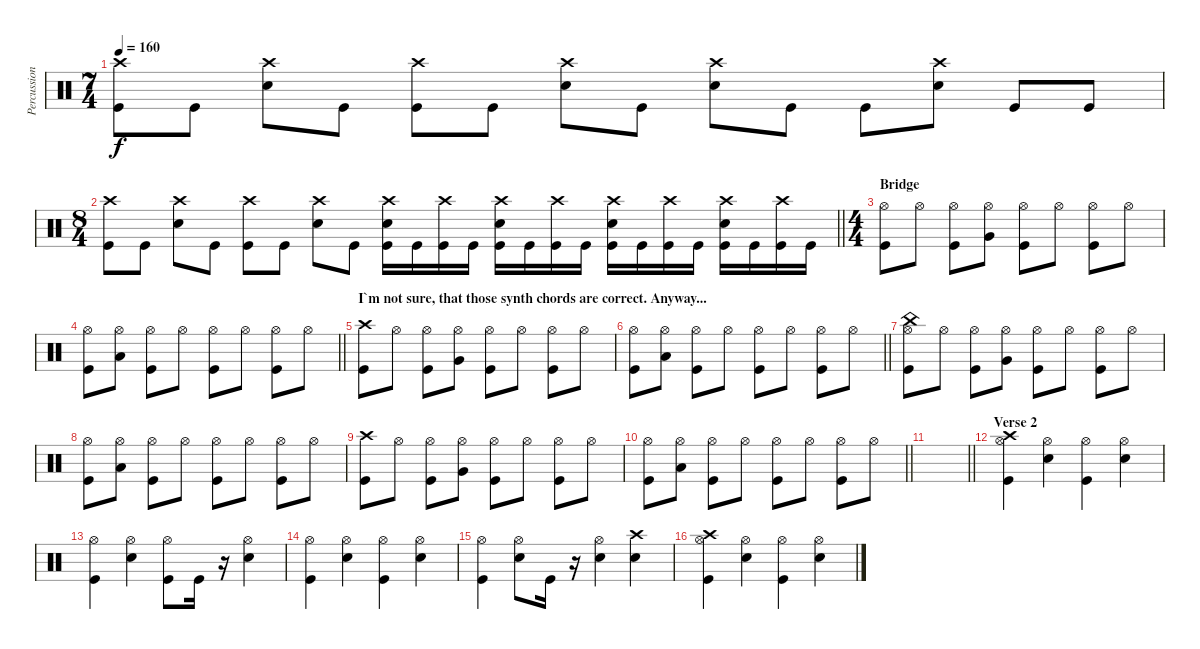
\track ("Percussion" "Percussion") {instrument percussion}
\staff {score}
\articulation defaults
\ts (7 4)
\tempo 160
\clef neutral
\ks c
("Kick (hit)" "Crash high (hit)").8{dy f} "Kick (hit)".8 ("Snare (hit) 2" "Crash high (hit)").8 "Kick (hit)".8 ("Kick (hit)" "Crash high (hit)").8 "Kick (hit)".8 ("Snare (hit) 2" "Crash high (hit)").8 "Kick (hit)".8 ("Snare (hit) 2" "Crash high (hit)").8 "Kick (hit)".8 "Kick (hit)".8 ("Snare (hit) 2" "Crash high (hit)").8 "Kick (hit)".8 "Kick (hit)".8 |
\ts (8 4)
\barLineRight lightlight
("Kick (hit)" "Crash high (hit)").8 "Kick (hit)".8 ("Snare (hit) 2" "Crash high (hit)").8 "Kick (hit)".8 ("Kick (hit)" "Crash high (hit)").8 "Kick (hit)".8 ("Snare (hit) 2" "Crash high (hit)").8 "Kick (hit)".8 ("Kick (hit)" "Snare (hit) 2" "Crash high (hit)").16 "Kick (hit)".16 ("Kick (hit)" "Crash high (hit)").16 "Kick (hit)".16 ("Kick (hit)" "Snare (hit) 2" "Crash high (hit)").16 "Kick (hit)".16 ("Kick (hit)" "Crash high (hit)").16 "Kick (hit)".16 ("Kick (hit)" "Snare (hit) 2" "Crash high (hit)").16 "Kick (hit)".16 ("Kick (hit)" "Crash high (hit)").16 "Kick (hit)".16 ("Kick (hit)" "Snare (hit) 2" "Crash high (hit)").16 "Kick (hit)".16 ("Kick (hit)" "Crash high (hit)").16 "Kick (hit)".16 |
\ts (4 4)
\section ("" "Bridge")
("Kick (hit)" "Hi-Hat (open)").8 "Hi-Hat (open)".8 ("Hi-Hat (open)" "Kick (hit)").8 ("Hi-Hat (open)" "Very Low Tom (hit)").8 ("Hi-Hat (open)" "Kick (hit)").8 "Hi-Hat (open)".8 ("Hi-Hat (open)" "Kick (hit)").8 "Hi-Hat (open)".8 |
\barLineRight lightlight
("Kick (hit)" "Hi-Hat (open)").8 ("Low Floor Tom (hit)" "Hi-Hat (open)").8 ("Kick (hit)" "Hi-Hat (open)").8 "Hi-Hat (open)".8 ("Hi-Hat (open)" "Kick (hit)").8 "Hi-Hat (open)".8 ("Kick (hit)" "Hi-Hat (open)").8 "Hi-Hat (open)".8 |
\section ("" "I`m not sure, that those synth chords are correct. Anyway...")
("Kick (hit)" "Crash high (hit)").8 "Hi-Hat (open)".8 ("Hi-Hat (open)" "Kick (hit)").8 ("Hi-Hat (open)" "Very Low Tom (hit)").8 ("Hi-Hat (open)" "Kick (hit)").8 "Hi-Hat (open)".8 ("Hi-Hat (open)" "Kick (hit)").8 "Hi-Hat (open)".8 |
\barLineRight lightlight
("Kick (hit)" "Hi-Hat (open)").8 ("Low Floor Tom (hit)" "Hi-Hat (open)").8 ("Kick (hit)" "Hi-Hat (open)").8 "Hi-Hat (open)".8 ("Hi-Hat (open)" "Kick (hit)").8 "Hi-Hat (open)".8 ("Kick (hit)" "Hi-Hat (open)").8 "Hi-Hat (open)".8 |
("Kick (hit)" "Hi-Hat (open)" "China (hit)").8 "Hi-Hat (open)".8 ("Hi-Hat (open)" "Kick (hit)").8 ("Hi-Hat (open)" "Very Low Tom (hit)").8 ("Hi-Hat (open)" "Kick (hit)").8 "Hi-Hat (open)".8 ("Hi-Hat (open)" "Kick (hit)").8 "Hi-Hat (open)".8 |
("Kick (hit)" "Hi-Hat (open)").8 ("Low Floor Tom (hit)" "Hi-Hat (open)").8 ("Kick (hit)" "Hi-Hat (open)").8 "Hi-Hat (open)".8 ("Hi-Hat (open)" "Kick (hit)").8 "Hi-Hat (open)".8 ("Kick (hit)" "Hi-Hat (open)").8 "Hi-Hat (open)".8 |
("Kick (hit)" "Crash high (hit)").8 "Hi-Hat (open)".8 ("Hi-Hat (open)" "Kick (hit)").8 ("Hi-Hat (open)" "Very Low Tom (hit)").8 ("Hi-Hat (open)" "Kick (hit)").8 "Hi-Hat (open)".8 ("Hi-Hat (open)" "Kick (hit)").8 "Hi-Hat (open)".8 |
\barLineRight lightlight
("Kick (hit)" "Hi-Hat (open)").8 ("Low Floor Tom (hit)" "Hi-Hat (open)").8 ("Kick (hit)" "Hi-Hat (open)").8 "Hi-Hat (open)".8 ("Hi-Hat (open)" "Kick (hit)").8 "Hi-Hat (open)".8 ("Kick (hit)" "Hi-Hat (open)").8 "Hi-Hat (open)".8 |
\section ("" "")
\barLineRight lightlight
|
\section ("" "Verse 2")
("Kick (hit)" "Crash high (hit)" "Hi-Hat (open)").4 ("Hi-Hat (open)" "Snare (hit) 2").4 ("Kick (hit)" "Hi-Hat (open)").4 ("Snare (hit) 2" "Hi-Hat (open)").4 |
("Kick (hit)" "Hi-Hat (open)").4 ("Hi-Hat (open)" "Snare (hit) 2").4 ("Kick (hit)" "Hi-Hat (open)").8 "Kick (hit)".16 r.16 ("Snare (hit) 2" "Hi-Hat (open)").4 |
("Kick (hit)" "Hi-Hat (open)").4 ("Hi-Hat (open)" "Snare (hit) 2").4 ("Kick (hit)" "Hi-Hat (open)").4 ("Snare (hit) 2" "Hi-Hat (open)").4 |
("Kick (hit)" "Hi-Hat (open)").4 ("Snare (hit) 2" "Hi-Hat (open)").8 "Kick (hit)".16 r.16 ("Snare (hit) 2" "Hi-Hat (open)").4 ("Snare (hit) 2" "Crash high (hit)").4 |
("Kick (hit)" "Crash high (hit)" "Hi-Hat (open)").4 ("Hi-Hat (open)" "Snare (hit) 2").4 ("Kick (hit)" "Hi-Hat (open)").4 ("Snare (hit) 2" "Hi-Hat (open)").4
